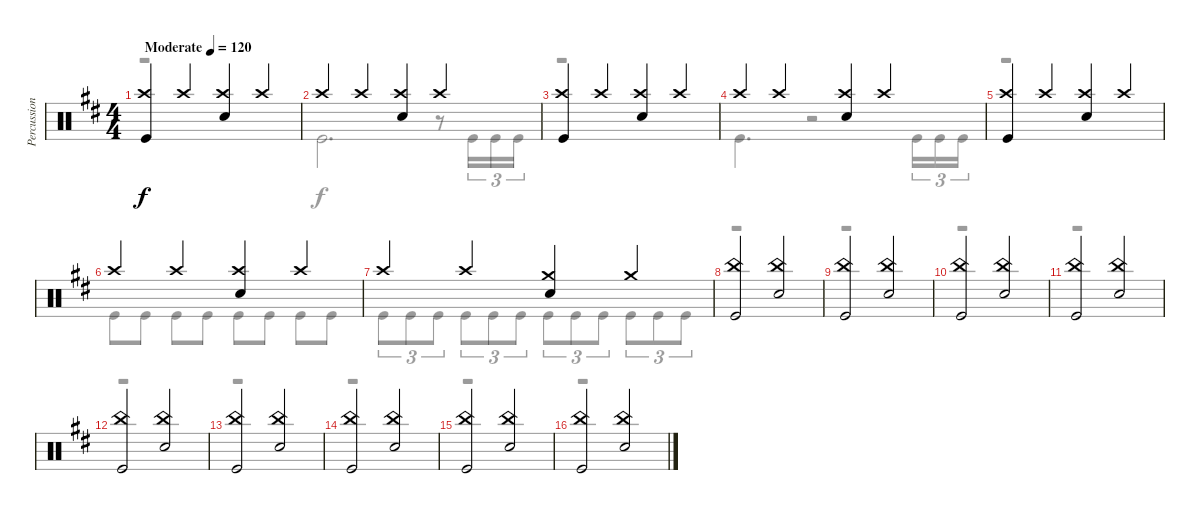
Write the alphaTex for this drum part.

\track ("Percussion" "Percussion") {instrument percussion}
\staff {score}
\articulation defaults
\voice
\ts (4 4)
\tempo (120 "Moderate")
\clef neutral
\ks bminor
("Crash high (hit)" "Kick (hit)").4{dy f} "Crash high (hit)".4 ("Crash high (hit)" "Snare (hit) 2").4 "Crash high (hit)".4 |
"Crash high (hit)".4 "Crash high (hit)".4 ("Crash high (hit)" "Snare (hit) 2").4 "Crash high (hit)".4 |
("Crash high (hit)" "Kick (hit)").4 "Crash high (hit)".4 ("Crash high (hit)" "Snare (hit) 2").4 "Crash high (hit)".4 |
"Crash high (hit)".4 "Crash high (hit)".4 ("Crash high (hit)" "Snare (hit) 2").4 "Crash high (hit)".4 |
("Crash high (hit)" "Kick (hit)").4 "Crash high (hit)".4 ("Crash high (hit)" "Snare (hit) 2").4 "Crash high (hit)".4 |
"Crash high (hit)".4 "Crash high (hit)".4 ("Crash high (hit)" "Snare (hit) 2").4 "Crash high (hit)".4 |
"Crash high (hit)".4 "Crash high (hit)".4 ("Crash medium (hit)" "Snare (hit) 2").4 "Crash medium (hit)".4 |
("China (hit)" "Kick (hit)").2 ("China (hit)" "Snare (hit) 2").2 |
("China (hit)" "Kick (hit)").2 ("China (hit)" "Snare (hit) 2").2 |
("China (hit)" "Kick (hit)").2 ("China (hit)" "Snare (hit) 2").2 |
("China (hit)" "Kick (hit)").2 ("China (hit)" "Snare (hit) 2").2 |
("China (hit)" "Kick (hit)").2 ("China (hit)" "Snare (hit) 2").2 |
("China (hit)" "Kick (hit)").2 ("China (hit)" "Snare (hit) 2").2 |
("China (hit)" "Kick (hit)").2 ("China (hit)" "Snare (hit) 2").2 |
("China (hit)" "Kick (hit)").2 ("China (hit)" "Snare (hit) 2").2 |
("China (hit)" "Kick (hit)").2 ("China (hit)" "Snare (hit) 2").2
\voice
\clef neutral
\ottava regular
\simile none
\ks bminor
r.1{dy f} |
"Kick (hit)".2{d} r.8 "Kick (hit)".16{tu (3 2)} "Kick (hit)".16{tu (3 2)} "Kick (hit)".16{tu (3 2)} |
r.1 |
"Kick (hit)".4{d} r.2 "Kick (hit)".16{tu (3 2)} "Kick (hit)".16{tu (3 2)} "Kick (hit)".16{tu (3 2)} |
r.1 |
"Kick (hit)".8 "Kick (hit)".8 "Kick (hit)".8 "Kick (hit)".8 "Kick (hit)".8 "Kick (hit)".8 "Kick (hit)".8 "Kick (hit)".8 |
"Kick (hit)".8{tu (3 2)} "Kick (hit)".8{tu (3 2)} "Kick (hit)".8{tu (3 2)} "Kick (hit)".8{tu (3 2)} "Kick (hit)".8{tu (3 2)} "Kick (hit)".8{tu (3 2)} "Kick (hit)".8{tu (3 2)} "Kick (hit)".8{tu (3 2)} "Kick (hit)".8{tu (3 2)} "Kick (hit)".8{tu (3 2)} "Kick (hit)".8{tu (3 2)} "Kick (hit)".8{tu (3 2)} |
r.1 |
r.1 |
r.1 |
r.1 |
r.1 |
r.1 |
r.1 |
r.1 |
r.1
